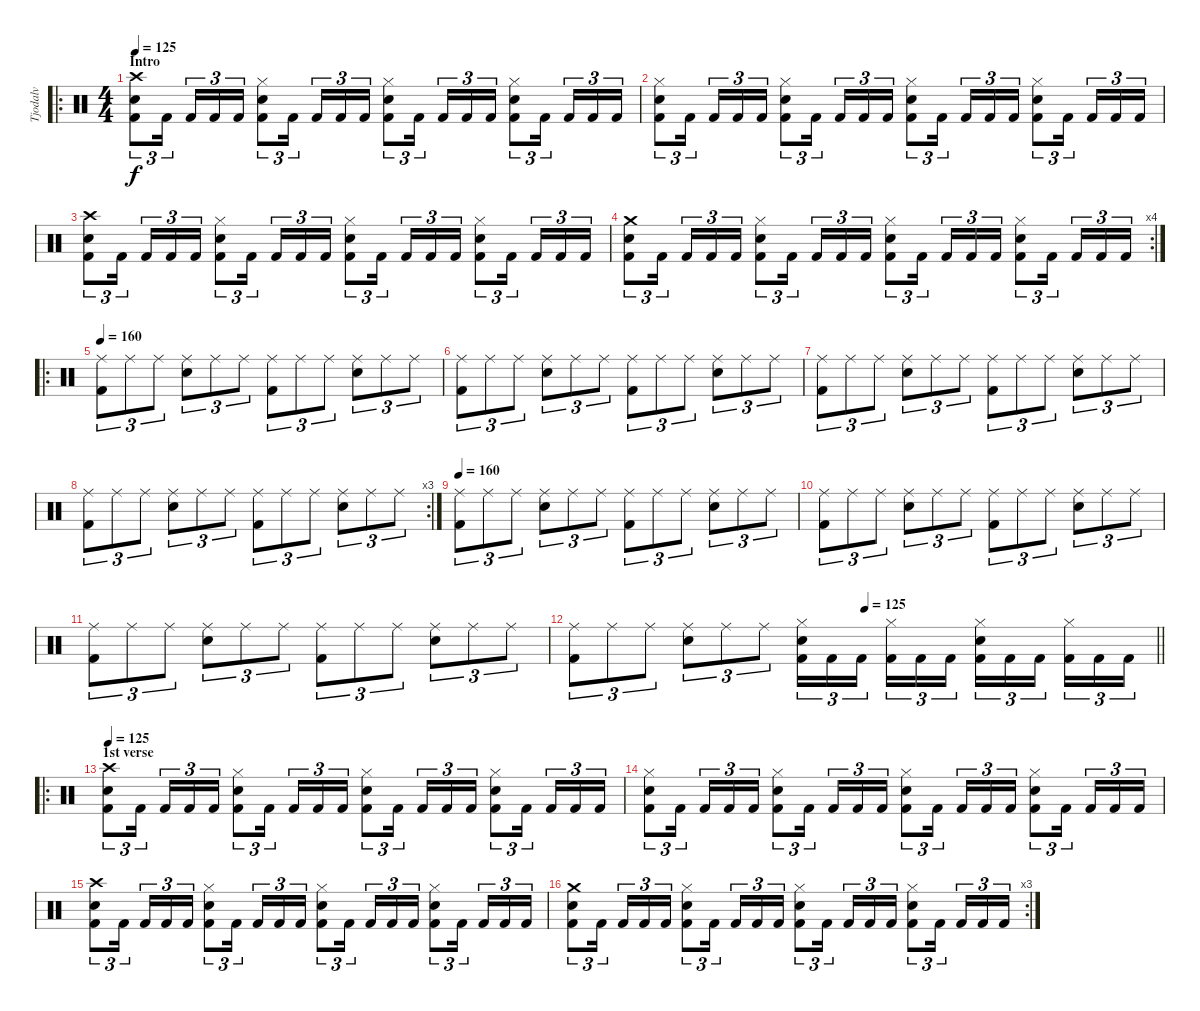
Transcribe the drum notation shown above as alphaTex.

\track ("Tjodalv" "Tjodalv") {instrument percussion}
\staff {score}
\articulation defaults
\ro
\ts (4 4)
\section ("" "Intro")
\tempo 125
\clef neutral
\ks c
("Snare (hit) 2" "Kick (hit) 2" "Crash high (hit)").8{tu (3 2) dy f} "Kick (hit) 2".16{tu (3 2)} "Kick (hit) 2".16{tu (3 2)} "Kick (hit) 2".16{tu (3 2)} "Kick (hit) 2".16{tu (3 2)} ("Snare (hit) 2" "Kick (hit) 2" "Hi-Hat (closed)").8{tu (3 2)} "Kick (hit) 2".16{tu (3 2)} "Kick (hit) 2".16{tu (3 2)} "Kick (hit) 2".16{tu (3 2)} "Kick (hit) 2".16{tu (3 2)} ("Snare (hit) 2" "Kick (hit) 2" "Hi-Hat (closed)").8{tu (3 2)} "Kick (hit) 2".16{tu (3 2)} "Kick (hit) 2".16{tu (3 2)} "Kick (hit) 2".16{tu (3 2)} "Kick (hit) 2".16{tu (3 2)} ("Snare (hit) 2" "Kick (hit) 2" "Hi-Hat (closed)").8{tu (3 2)} "Kick (hit) 2".16{tu (3 2)} "Kick (hit) 2".16{tu (3 2)} "Kick (hit) 2".16{tu (3 2)} "Kick (hit) 2".16{tu (3 2)} |
("Snare (hit) 2" "Kick (hit) 2" "Hi-Hat (closed)").8{tu (3 2)} "Kick (hit) 2".16{tu (3 2)} "Kick (hit) 2".16{tu (3 2)} "Kick (hit) 2".16{tu (3 2)} "Kick (hit) 2".16{tu (3 2)} ("Snare (hit) 2" "Kick (hit) 2" "Hi-Hat (closed)").8{tu (3 2)} "Kick (hit) 2".16{tu (3 2)} "Kick (hit) 2".16{tu (3 2)} "Kick (hit) 2".16{tu (3 2)} "Kick (hit) 2".16{tu (3 2)} ("Snare (hit) 2" "Kick (hit) 2" "Hi-Hat (closed)").8{tu (3 2)} "Kick (hit) 2".16{tu (3 2)} "Kick (hit) 2".16{tu (3 2)} "Kick (hit) 2".16{tu (3 2)} "Kick (hit) 2".16{tu (3 2)} ("Snare (hit) 2" "Kick (hit) 2" "Hi-Hat (closed)").8{tu (3 2)} "Kick (hit) 2".16{tu (3 2)} "Kick (hit) 2".16{tu (3 2)} "Kick (hit) 2".16{tu (3 2)} "Kick (hit) 2".16{tu (3 2)} |
("Snare (hit) 2" "Kick (hit) 2" "Crash high (hit)").8{tu (3 2)} "Kick (hit) 2".16{tu (3 2)} "Kick (hit) 2".16{tu (3 2)} "Kick (hit) 2".16{tu (3 2)} "Kick (hit) 2".16{tu (3 2)} ("Snare (hit) 2" "Kick (hit) 2" "Hi-Hat (closed)").8{tu (3 2)} "Kick (hit) 2".16{tu (3 2)} "Kick (hit) 2".16{tu (3 2)} "Kick (hit) 2".16{tu (3 2)} "Kick (hit) 2".16{tu (3 2)} ("Snare (hit) 2" "Kick (hit) 2" "Hi-Hat (closed)").8{tu (3 2)} "Kick (hit) 2".16{tu (3 2)} "Kick (hit) 2".16{tu (3 2)} "Kick (hit) 2".16{tu (3 2)} "Kick (hit) 2".16{tu (3 2)} ("Snare (hit) 2" "Kick (hit) 2" "Hi-Hat (closed)").8{tu (3 2)} "Kick (hit) 2".16{tu (3 2)} "Kick (hit) 2".16{tu (3 2)} "Kick (hit) 2".16{tu (3 2)} "Kick (hit) 2".16{tu (3 2)} |
\rc 4
("Snare (hit) 2" "Kick (hit) 2" "Crash medium (hit)").8{tu (3 2)} "Kick (hit) 2".16{tu (3 2)} "Kick (hit) 2".16{tu (3 2)} "Kick (hit) 2".16{tu (3 2)} "Kick (hit) 2".16{tu (3 2)} ("Snare (hit) 2" "Kick (hit) 2" "Hi-Hat (closed)").8{tu (3 2)} "Kick (hit) 2".16{tu (3 2)} "Kick (hit) 2".16{tu (3 2)} "Kick (hit) 2".16{tu (3 2)} "Kick (hit) 2".16{tu (3 2)} ("Snare (hit) 2" "Kick (hit) 2" "Hi-Hat (closed)").8{tu (3 2)} "Kick (hit) 2".16{tu (3 2)} "Kick (hit) 2".16{tu (3 2)} "Kick (hit) 2".16{tu (3 2)} "Kick (hit) 2".16{tu (3 2)} ("Snare (hit) 2" "Kick (hit) 2" "Hi-Hat (closed)").8{tu (3 2)} "Kick (hit) 2".16{tu (3 2)} "Kick (hit) 2".16{tu (3 2)} "Kick (hit) 2".16{tu (3 2)} "Kick (hit) 2".16{tu (3 2)} |
\ro
\tempo 160
("Ride (middle)" "Kick (hit) 2").8{tu (3 2)} "Ride (middle)".8{tu (3 2)} "Ride (middle)".8{tu (3 2)} ("Ride (middle)" "Snare (hit) 2").8{tu (3 2)} "Ride (middle)".8{tu (3 2)} "Ride (middle)".8{tu (3 2)} ("Kick (hit) 2" "Ride (middle)").8{tu (3 2)} "Ride (middle)".8{tu (3 2)} "Ride (middle)".8{tu (3 2)} ("Ride (middle)" "Snare (hit) 2").8{tu (3 2)} "Ride (middle)".8{tu (3 2)} "Ride (middle)".8{tu (3 2)} |
("Ride (middle)" "Kick (hit) 2").8{tu (3 2)} "Ride (middle)".8{tu (3 2)} "Ride (middle)".8{tu (3 2)} ("Ride (middle)" "Snare (hit) 2").8{tu (3 2)} "Ride (middle)".8{tu (3 2)} "Ride (middle)".8{tu (3 2)} ("Kick (hit) 2" "Ride (middle)").8{tu (3 2)} "Ride (middle)".8{tu (3 2)} "Ride (middle)".8{tu (3 2)} ("Ride (middle)" "Snare (hit) 2").8{tu (3 2)} "Ride (middle)".8{tu (3 2)} "Ride (middle)".8{tu (3 2)} |
("Ride (middle)" "Kick (hit) 2").8{tu (3 2)} "Ride (middle)".8{tu (3 2)} "Ride (middle)".8{tu (3 2)} ("Ride (middle)" "Snare (hit) 2").8{tu (3 2)} "Ride (middle)".8{tu (3 2)} "Ride (middle)".8{tu (3 2)} ("Kick (hit) 2" "Ride (middle)").8{tu (3 2)} "Ride (middle)".8{tu (3 2)} "Ride (middle)".8{tu (3 2)} ("Ride (middle)" "Snare (hit) 2").8{tu (3 2)} "Ride (middle)".8{tu (3 2)} "Ride (middle)".8{tu (3 2)} |
\rc 3
("Ride (middle)" "Kick (hit) 2").8{tu (3 2)} "Ride (middle)".8{tu (3 2)} "Ride (middle)".8{tu (3 2)} ("Ride (middle)" "Snare (hit) 2").8{tu (3 2)} "Ride (middle)".8{tu (3 2)} "Ride (middle)".8{tu (3 2)} ("Kick (hit) 2" "Ride (middle)").8{tu (3 2)} "Ride (middle)".8{tu (3 2)} "Ride (middle)".8{tu (3 2)} ("Ride (middle)" "Snare (hit) 2").8{tu (3 2)} "Ride (middle)".8{tu (3 2)} "Ride (middle)".8{tu (3 2)} |
\tempo 160
("Ride (middle)" "Kick (hit) 2").8{tu (3 2)} "Ride (middle)".8{tu (3 2)} "Ride (middle)".8{tu (3 2)} ("Ride (middle)" "Snare (hit) 2").8{tu (3 2)} "Ride (middle)".8{tu (3 2)} "Ride (middle)".8{tu (3 2)} ("Kick (hit) 2" "Ride (middle)").8{tu (3 2)} "Ride (middle)".8{tu (3 2)} "Ride (middle)".8{tu (3 2)} ("Ride (middle)" "Snare (hit) 2").8{tu (3 2)} "Ride (middle)".8{tu (3 2)} "Ride (middle)".8{tu (3 2)} |
("Ride (middle)" "Kick (hit) 2").8{tu (3 2)} "Ride (middle)".8{tu (3 2)} "Ride (middle)".8{tu (3 2)} ("Ride (middle)" "Snare (hit) 2").8{tu (3 2)} "Ride (middle)".8{tu (3 2)} "Ride (middle)".8{tu (3 2)} ("Kick (hit) 2" "Ride (middle)").8{tu (3 2)} "Ride (middle)".8{tu (3 2)} "Ride (middle)".8{tu (3 2)} ("Ride (middle)" "Snare (hit) 2").8{tu (3 2)} "Ride (middle)".8{tu (3 2)} "Ride (middle)".8{tu (3 2)} |
("Ride (middle)" "Kick (hit) 2").8{tu (3 2)} "Ride (middle)".8{tu (3 2)} "Ride (middle)".8{tu (3 2)} ("Ride (middle)" "Snare (hit) 2").8{tu (3 2)} "Ride (middle)".8{tu (3 2)} "Ride (middle)".8{tu (3 2)} ("Kick (hit) 2" "Ride (middle)").8{tu (3 2)} "Ride (middle)".8{tu (3 2)} "Ride (middle)".8{tu (3 2)} ("Ride (middle)" "Snare (hit) 2").8{tu (3 2)} "Ride (middle)".8{tu (3 2)} "Ride (middle)".8{tu (3 2)} |
\tempo (125 0.5)
\barLineRight lightlight
("Ride (middle)" "Kick (hit) 2").8{tu (3 2)} "Ride (middle)".8{tu (3 2)} "Ride (middle)".8{tu (3 2)} ("Ride (middle)" "Snare (hit) 2").8{tu (3 2)} "Ride (middle)".8{tu (3 2)} "Ride (middle)".8{tu (3 2)} ("Kick (hit) 2" "Hi-Hat (closed)" "Snare (hit) 2").16{tu (3 2)} "Kick (hit) 2".16{tu (3 2)} "Kick (hit) 2".16{tu (3 2)} ("Kick (hit) 2" "Hi-Hat (closed)").16{tu (3 2)} "Kick (hit) 2".16{tu (3 2)} "Kick (hit) 2".16{tu (3 2)} ("Kick (hit) 2" "Hi-Hat (closed)" "Snare (hit) 2").16{tu (3 2)} "Kick (hit) 2".16{tu (3 2)} "Kick (hit) 2".16{tu (3 2)} ("Kick (hit) 2" "Hi-Hat (closed)").16{tu (3 2)} "Kick (hit) 2".16{tu (3 2)} "Kick (hit) 2".16{tu (3 2)} |
\ro
\section ("" "1st verse")
\tempo 125
("Snare (hit) 2" "Kick (hit) 2" "Crash high (hit)").8{tu (3 2)} "Kick (hit) 2".16{tu (3 2)} "Kick (hit) 2".16{tu (3 2)} "Kick (hit) 2".16{tu (3 2)} "Kick (hit) 2".16{tu (3 2)} ("Snare (hit) 2" "Kick (hit) 2" "Hi-Hat (closed)").8{tu (3 2)} "Kick (hit) 2".16{tu (3 2)} "Kick (hit) 2".16{tu (3 2)} "Kick (hit) 2".16{tu (3 2)} "Kick (hit) 2".16{tu (3 2)} ("Snare (hit) 2" "Kick (hit) 2" "Hi-Hat (closed)").8{tu (3 2)} "Kick (hit) 2".16{tu (3 2)} "Kick (hit) 2".16{tu (3 2)} "Kick (hit) 2".16{tu (3 2)} "Kick (hit) 2".16{tu (3 2)} ("Snare (hit) 2" "Kick (hit) 2" "Hi-Hat (closed)").8{tu (3 2)} "Kick (hit) 2".16{tu (3 2)} "Kick (hit) 2".16{tu (3 2)} "Kick (hit) 2".16{tu (3 2)} "Kick (hit) 2".16{tu (3 2)} |
("Snare (hit) 2" "Kick (hit) 2" "Hi-Hat (closed)").8{tu (3 2)} "Kick (hit) 2".16{tu (3 2)} "Kick (hit) 2".16{tu (3 2)} "Kick (hit) 2".16{tu (3 2)} "Kick (hit) 2".16{tu (3 2)} ("Snare (hit) 2" "Kick (hit) 2" "Hi-Hat (closed)").8{tu (3 2)} "Kick (hit) 2".16{tu (3 2)} "Kick (hit) 2".16{tu (3 2)} "Kick (hit) 2".16{tu (3 2)} "Kick (hit) 2".16{tu (3 2)} ("Snare (hit) 2" "Kick (hit) 2" "Hi-Hat (closed)").8{tu (3 2)} "Kick (hit) 2".16{tu (3 2)} "Kick (hit) 2".16{tu (3 2)} "Kick (hit) 2".16{tu (3 2)} "Kick (hit) 2".16{tu (3 2)} ("Snare (hit) 2" "Kick (hit) 2" "Hi-Hat (closed)").8{tu (3 2)} "Kick (hit) 2".16{tu (3 2)} "Kick (hit) 2".16{tu (3 2)} "Kick (hit) 2".16{tu (3 2)} "Kick (hit) 2".16{tu (3 2)} |
("Snare (hit) 2" "Kick (hit) 2" "Crash high (hit)").8{tu (3 2)} "Kick (hit) 2".16{tu (3 2)} "Kick (hit) 2".16{tu (3 2)} "Kick (hit) 2".16{tu (3 2)} "Kick (hit) 2".16{tu (3 2)} ("Snare (hit) 2" "Kick (hit) 2" "Hi-Hat (closed)").8{tu (3 2)} "Kick (hit) 2".16{tu (3 2)} "Kick (hit) 2".16{tu (3 2)} "Kick (hit) 2".16{tu (3 2)} "Kick (hit) 2".16{tu (3 2)} ("Snare (hit) 2" "Kick (hit) 2" "Hi-Hat (closed)").8{tu (3 2)} "Kick (hit) 2".16{tu (3 2)} "Kick (hit) 2".16{tu (3 2)} "Kick (hit) 2".16{tu (3 2)} "Kick (hit) 2".16{tu (3 2)} ("Snare (hit) 2" "Kick (hit) 2" "Hi-Hat (closed)").8{tu (3 2)} "Kick (hit) 2".16{tu (3 2)} "Kick (hit) 2".16{tu (3 2)} "Kick (hit) 2".16{tu (3 2)} "Kick (hit) 2".16{tu (3 2)} |
\rc 3
("Snare (hit) 2" "Kick (hit) 2" "Crash medium (hit)").8{tu (3 2)} "Kick (hit) 2".16{tu (3 2)} "Kick (hit) 2".16{tu (3 2)} "Kick (hit) 2".16{tu (3 2)} "Kick (hit) 2".16{tu (3 2)} ("Snare (hit) 2" "Kick (hit) 2" "Hi-Hat (closed)").8{tu (3 2)} "Kick (hit) 2".16{tu (3 2)} "Kick (hit) 2".16{tu (3 2)} "Kick (hit) 2".16{tu (3 2)} "Kick (hit) 2".16{tu (3 2)} ("Snare (hit) 2" "Kick (hit) 2" "Hi-Hat (closed)").8{tu (3 2)} "Kick (hit) 2".16{tu (3 2)} "Kick (hit) 2".16{tu (3 2)} "Kick (hit) 2".16{tu (3 2)} "Kick (hit) 2".16{tu (3 2)} ("Snare (hit) 2" "Kick (hit) 2" "Hi-Hat (closed)").8{tu (3 2)} "Kick (hit) 2".16{tu (3 2)} "Kick (hit) 2".16{tu (3 2)} "Kick (hit) 2".16{tu (3 2)} "Kick (hit) 2".16{tu (3 2)}
